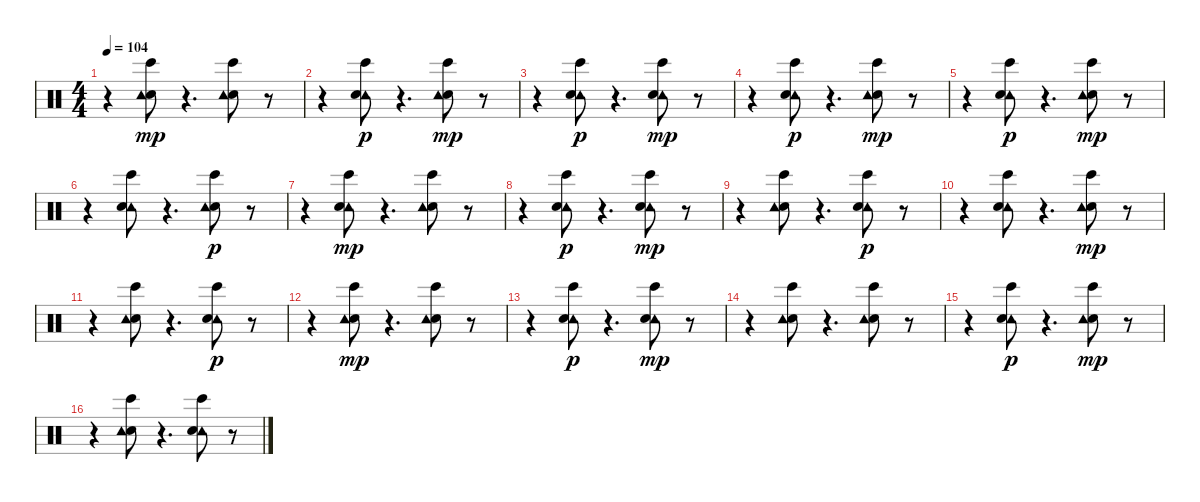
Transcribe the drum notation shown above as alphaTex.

\track "" {instrument percussion}
\staff {score}
\articulation defaults
\ts (4 4)
\tempo 104
\clef neutral
\ks c
r.4{dy mp} ("Electric Snare (hit)" "Tambourine (hit)" "Bongo High (hit)").8 r.4{d} ("Bongo High (hit)" "Electric Snare (hit)" "Tambourine (hit)").8 r.8 |
r.4 ("Tambourine (hit)" "Bongo High (hit)" "Electric Snare (hit)").8{dy p} r.4{d} ("Electric Snare (hit)" "Tambourine (hit)" "Bongo High (hit)").8{dy mp} r.8 |
r.4 ("Tambourine (hit)" "Bongo High (hit)" "Electric Snare (hit)").8{dy p} r.4{d} ("Tambourine (hit)" "Electric Snare (hit)" "Bongo High (hit)").8{dy mp} r.8 |
r.4 ("Tambourine (hit)" "Bongo High (hit)" "Electric Snare (hit)").8{dy p} r.4{d} ("Electric Snare (hit)" "Bongo High (hit)" "Tambourine (hit)").8{dy mp} r.8 |
r.4 ("Bongo High (hit)" "Tambourine (hit)" "Electric Snare (hit)").8{dy p} r.4{d} ("Bongo High (hit)" "Electric Snare (hit)" "Tambourine (hit)").8{dy mp} r.8 |
r.4 ("Tambourine (hit)" "Electric Snare (hit)" "Bongo High (hit)").8 r.4{d} ("Electric Snare (hit)" "Tambourine (hit)" "Bongo High (hit)").8{dy p} r.8 |
r.4 ("Tambourine (hit)" "Electric Snare (hit)" "Bongo High (hit)").8{dy mp} r.4{d} ("Electric Snare (hit)" "Tambourine (hit)" "Bongo High (hit)").8 r.8 |
r.4 ("Bongo High (hit)" "Tambourine (hit)" "Electric Snare (hit)").8{dy p} r.4{d} ("Tambourine (hit)" "Electric Snare (hit)" "Bongo High (hit)").8{dy mp} r.8 |
r.4 ("Electric Snare (hit)" "Bongo High (hit)" "Tambourine (hit)").8 r.4{d} ("Bongo High (hit)" "Tambourine (hit)" "Electric Snare (hit)").8{dy p} r.8 |
r.4 ("Tambourine (hit)" "Bongo High (hit)" "Electric Snare (hit)").8 r.4{d} ("Bongo High (hit)" "Electric Snare (hit)" "Tambourine (hit)").8{dy mp} r.8 |
r.4 ("Electric Snare (hit)" "Tambourine (hit)" "Bongo High (hit)").8 r.4{d} ("Tambourine (hit)" "Bongo High (hit)" "Electric Snare (hit)").8{dy p} r.8 |
r.4 ("Electric Snare (hit)" "Tambourine (hit)" "Bongo High (hit)").8{dy mp} r.4{d} ("Electric Snare (hit)" "Tambourine (hit)" "Bongo High (hit)").8 r.8 |
r.4 ("Bongo High (hit)" "Tambourine (hit)" "Electric Snare (hit)").8{dy p} r.4{d} ("Tambourine (hit)" "Electric Snare (hit)" "Bongo High (hit)").8{dy mp} r.8 |
r.4 ("Electric Snare (hit)" "Bongo High (hit)" "Tambourine (hit)").8 r.4{d} ("Electric Snare (hit)" "Bongo High (hit)" "Tambourine (hit)").8 r.8 |
r.4 ("Bongo High (hit)" "Tambourine (hit)" "Electric Snare (hit)").8{dy p} r.4{d} ("Bongo High (hit)" "Electric Snare (hit)" "Tambourine (hit)").8{dy mp} r.8 |
r.4 ("Bongo High (hit)" "Electric Snare (hit)" "Tambourine (hit)").8 r.4{d} ("Tambourine (hit)" "Electric Snare (hit)" "Bongo High (hit)").8 r.8
